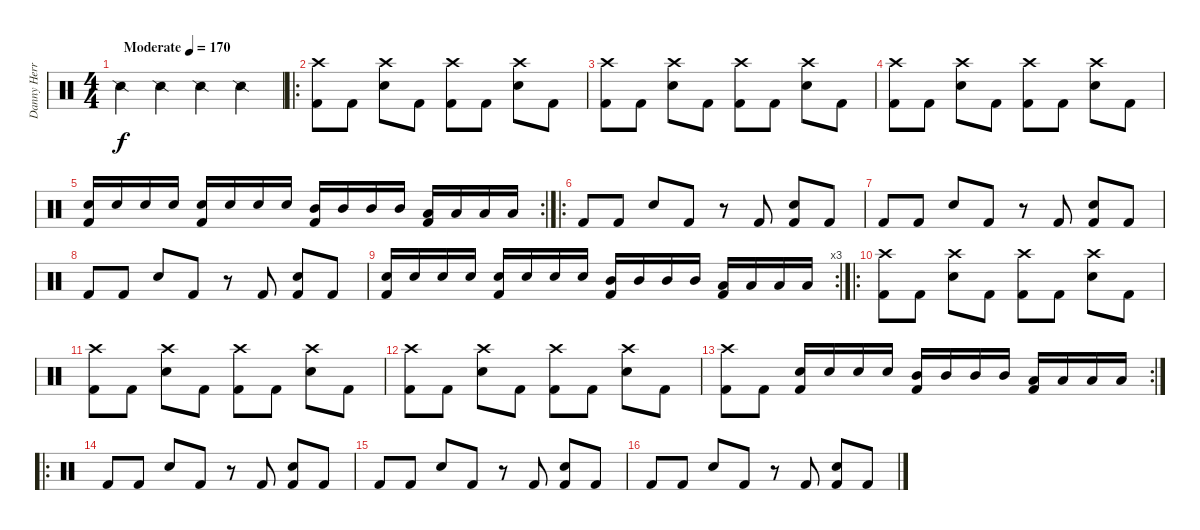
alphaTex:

\track ("Danny Herrera" "Danny Herr") {instrument percussion}
\staff {score}
\articulation defaults
\ts (4 4)
\tempo (170 "Moderate")
\clef neutral
\ks c "Snare (side stick) 2".4{dy f} "Snare (side stick) 2".4 "Snare (side stick) 2".4 "Snare (side stick) 2".4
|
\ro
("Crash high (hit)" "Kick (hit) 2").8 "Kick (hit) 2".8 ("Crash high (hit)" "Electric Snare (hit)").8 "Kick (hit) 2".8 ("Crash high (hit)" "Kick (hit) 2").8 "Kick (hit) 2".8 ("Crash high (hit)" "Electric Snare (hit)").8 "Kick (hit) 2".8 |
("Crash high (hit)" "Kick (hit) 2").8 "Kick (hit) 2".8 ("Crash high (hit)" "Electric Snare (hit)").8 "Kick (hit) 2".8 ("Crash high (hit)" "Kick (hit) 2").8 "Kick (hit) 2".8 ("Crash high (hit)" "Electric Snare (hit)").8 "Kick (hit) 2".8 |
("Crash high (hit)" "Kick (hit) 2").8 "Kick (hit) 2".8 ("Crash high (hit)" "Electric Snare (hit)").8 "Kick (hit) 2".8 ("Crash high (hit)" "Kick (hit) 2").8 "Kick (hit) 2".8 ("Crash high (hit)" "Electric Snare (hit)").8 "Kick (hit) 2".8 |
\rc 2
("Snare (hit) 2" "Kick (hit) 2").16 "Snare (hit) 2".16 "Snare (hit) 2".16 "Snare (hit) 2".16 ("Electric Snare (hit)" "Kick (hit) 2").16 "Electric Snare (hit)".16 "Electric Snare (hit)".16 "Electric Snare (hit)".16 ("Mid Tom (hit)" "Kick (hit) 2").16 "Mid Tom (hit)".16 "Mid Tom (hit)".16 "Mid Tom (hit)".16 ("Low Tom (hit)" "Kick (hit) 2").16 "Low Tom (hit)".16 "Low Tom (hit)".16 "Low Tom (hit)".16 |
\ro "Kick (hit) 2".8 "Kick (hit) 2".8 "Electric Snare (hit)".8 "Kick (hit) 2".8
r.8 "Kick (hit) 2".8 ("Electric Snare (hit)" "Kick (hit) 2").8 "Kick (hit) 2".8 |
"Kick (hit) 2".8 "Kick (hit) 2".8 "Electric Snare (hit)".8 "Kick (hit) 2".8 r.8 "Kick (hit) 2".8 ("Electric Snare (hit)" "Kick (hit) 2").8 "Kick (hit) 2".8 |
"Kick (hit) 2".8 "Kick (hit) 2".8 "Electric Snare (hit)".8 "Kick (hit) 2".8 r.8 "Kick (hit) 2".8 ("Electric Snare (hit)" "Kick (hit) 2").8 "Kick (hit) 2".8 |
\rc 3
("Snare (hit) 2" "Kick (hit) 2").16 "Snare (hit) 2".16 "Snare (hit) 2".16 "Snare (hit) 2".16 ("Electric Snare (hit)" "Kick (hit) 2").16 "Electric Snare (hit)".16 "Electric Snare (hit)".16 "Electric Snare (hit)".16 ("Mid Tom (hit)" "Kick (hit) 2").16 "Mid Tom (hit)".16 "Mid Tom (hit)".16 "Mid Tom (hit)".16 ("Low Tom (hit)" "Kick (hit) 2").16 "Low Tom (hit)".16 "Low Tom (hit)".16 "Low Tom (hit)".16 |
\ro
("Crash high (hit)" "Kick (hit) 2").8 "Kick (hit) 2".8 ("Crash high (hit)" "Electric Snare (hit)").8 "Kick (hit) 2".8 ("Crash high (hit)" "Kick (hit) 2").8 "Kick (hit) 2".8 ("Crash high (hit)" "Electric Snare (hit)").8 "Kick (hit) 2".8 |
("Crash high (hit)" "Kick (hit) 2").8 "Kick (hit) 2".8 ("Crash high (hit)" "Electric Snare (hit)").8 "Kick (hit) 2".8 ("Crash high (hit)" "Kick (hit) 2").8 "Kick (hit) 2".8 ("Crash high (hit)" "Electric Snare (hit)").8 "Kick (hit) 2".8 |
("Crash high (hit)" "Kick (hit) 2").8 "Kick (hit) 2".8 ("Crash high (hit)" "Electric Snare (hit)").8 "Kick (hit) 2".8 ("Crash high (hit)" "Kick (hit) 2").8 "Kick (hit) 2".8 ("Crash high (hit)" "Electric Snare (hit)").8 "Kick (hit) 2".8 |
\rc 2
("Crash high (hit)" "Kick (hit) 2").8 "Kick (hit) 2".8 ("Electric Snare (hit)" "Kick (hit) 2").16 "Electric Snare (hit)".16 "Electric Snare (hit)".16 "Electric Snare (hit)".16 ("Mid Tom (hit)" "Kick (hit) 2").16 "Mid Tom (hit)".16 "Mid Tom (hit)".16 "Mid Tom (hit)".16 ("Low Tom (hit)" "Kick (hit) 2").16 "Low Tom (hit)".16 "Low Tom (hit)".16 "Low Tom (hit)".16 |
\ro "Kick (hit) 2".8 "Kick (hit) 2".8 "Electric Snare (hit)".8 "Kick (hit) 2".8
r.8 "Kick (hit) 2".8 ("Electric Snare (hit)" "Kick (hit) 2").8 "Kick (hit) 2".8 |
"Kick (hit) 2".8 "Kick (hit) 2".8 "Electric Snare (hit)".8 "Kick (hit) 2".8 r.8 "Kick (hit) 2".8 ("Electric Snare (hit)" "Kick (hit) 2").8 "Kick (hit) 2".8 |
"Kick (hit) 2".8 "Kick (hit) 2".8 "Electric Snare (hit)".8 "Kick (hit) 2".8 r.8 "Kick (hit) 2".8 ("Electric Snare (hit)" "Kick (hit) 2").8 "Kick (hit) 2".8
